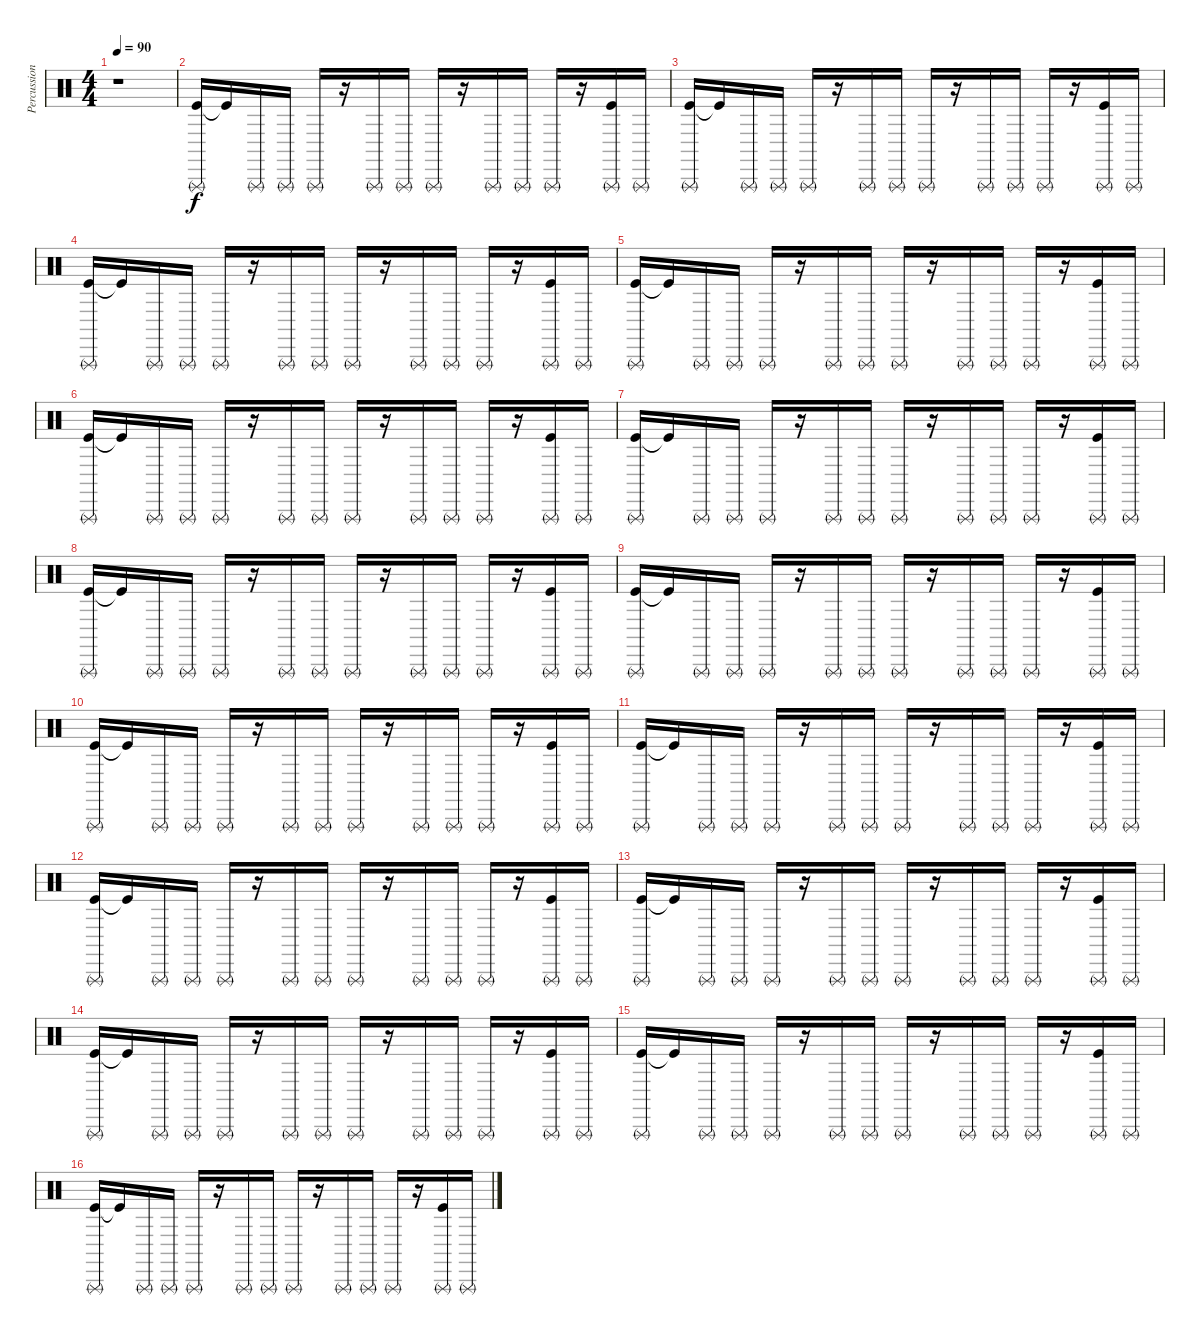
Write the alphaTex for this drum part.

\track ("Percussion" "Percussion") {instrument percussion}
\staff {score}
\articulation defaults
\ts (4 4)
\tempo 90
\clef neutral
\ks c
r.1{dy f} |
("Kick (hit)" "Triangle (rnute)").16 "Kick (hit)"{t}.16 "Triangle (rnute)".16 "Triangle (rnute)".16 "Triangle (rnute)".16 r.16 "Triangle (rnute)".16 "Triangle (rnute)".16 "Triangle (rnute)".16 r.16 "Triangle (rnute)".16 "Triangle (rnute)".16 "Triangle (rnute)".16 r.16 ("Kick (hit)" "Triangle (rnute)").16 "Triangle (rnute)".16 |
("Kick (hit)" "Triangle (rnute)").16 "Kick (hit)"{t}.16 "Triangle (rnute)".16 "Triangle (rnute)".16 "Triangle (rnute)".16 r.16 "Triangle (rnute)".16 "Triangle (rnute)".16 "Triangle (rnute)".16 r.16 "Triangle (rnute)".16 "Triangle (rnute)".16 "Triangle (rnute)".16 r.16 ("Kick (hit)" "Triangle (rnute)").16 "Triangle (rnute)".16 |
("Kick (hit)" "Triangle (rnute)").16 "Kick (hit)"{t}.16 "Triangle (rnute)".16 "Triangle (rnute)".16 "Triangle (rnute)".16 r.16 "Triangle (rnute)".16 "Triangle (rnute)".16 "Triangle (rnute)".16 r.16 "Triangle (rnute)".16 "Triangle (rnute)".16 "Triangle (rnute)".16 r.16 ("Kick (hit)" "Triangle (rnute)").16 "Triangle (rnute)".16 |
("Kick (hit)" "Triangle (rnute)").16 "Kick (hit)"{t}.16 "Triangle (rnute)".16 "Triangle (rnute)".16 "Triangle (rnute)".16 r.16 "Triangle (rnute)".16 "Triangle (rnute)".16 "Triangle (rnute)".16 r.16 "Triangle (rnute)".16 "Triangle (rnute)".16 "Triangle (rnute)".16 r.16 ("Kick (hit)" "Triangle (rnute)").16 "Triangle (rnute)".16 |
("Kick (hit)" "Triangle (rnute)").16 "Kick (hit)"{t}.16 "Triangle (rnute)".16 "Triangle (rnute)".16 "Triangle (rnute)".16 r.16 "Triangle (rnute)".16 "Triangle (rnute)".16 "Triangle (rnute)".16 r.16 "Triangle (rnute)".16 "Triangle (rnute)".16 "Triangle (rnute)".16 r.16 ("Kick (hit)" "Triangle (rnute)").16 "Triangle (rnute)".16 |
("Kick (hit)" "Triangle (rnute)").16 "Kick (hit)"{t}.16 "Triangle (rnute)".16 "Triangle (rnute)".16 "Triangle (rnute)".16 r.16 "Triangle (rnute)".16 "Triangle (rnute)".16 "Triangle (rnute)".16 r.16 "Triangle (rnute)".16 "Triangle (rnute)".16 "Triangle (rnute)".16 r.16 ("Kick (hit)" "Triangle (rnute)").16 "Triangle (rnute)".16 |
("Kick (hit)" "Triangle (rnute)").16 "Kick (hit)"{t}.16 "Triangle (rnute)".16 "Triangle (rnute)".16 "Triangle (rnute)".16 r.16 "Triangle (rnute)".16 "Triangle (rnute)".16 "Triangle (rnute)".16 r.16 "Triangle (rnute)".16 "Triangle (rnute)".16 "Triangle (rnute)".16 r.16 ("Kick (hit)" "Triangle (rnute)").16 "Triangle (rnute)".16 |
("Kick (hit)" "Triangle (rnute)").16 "Kick (hit)"{t}.16 "Triangle (rnute)".16 "Triangle (rnute)".16 "Triangle (rnute)".16 r.16 "Triangle (rnute)".16 "Triangle (rnute)".16 "Triangle (rnute)".16 r.16 "Triangle (rnute)".16 "Triangle (rnute)".16 "Triangle (rnute)".16 r.16 ("Kick (hit)" "Triangle (rnute)").16 "Triangle (rnute)".16 |
("Kick (hit)" "Triangle (rnute)").16 "Kick (hit)"{t}.16 "Triangle (rnute)".16 "Triangle (rnute)".16 "Triangle (rnute)".16 r.16 "Triangle (rnute)".16 "Triangle (rnute)".16 "Triangle (rnute)".16 r.16 "Triangle (rnute)".16 "Triangle (rnute)".16 "Triangle (rnute)".16 r.16 ("Kick (hit)" "Triangle (rnute)").16 "Triangle (rnute)".16 |
("Kick (hit)" "Triangle (rnute)").16 "Kick (hit)"{t}.16 "Triangle (rnute)".16 "Triangle (rnute)".16 "Triangle (rnute)".16 r.16 "Triangle (rnute)".16 "Triangle (rnute)".16 "Triangle (rnute)".16 r.16 "Triangle (rnute)".16 "Triangle (rnute)".16 "Triangle (rnute)".16 r.16 ("Kick (hit)" "Triangle (rnute)").16 "Triangle (rnute)".16 |
("Kick (hit)" "Triangle (rnute)").16 "Kick (hit)"{t}.16 "Triangle (rnute)".16 "Triangle (rnute)".16 "Triangle (rnute)".16 r.16 "Triangle (rnute)".16 "Triangle (rnute)".16 "Triangle (rnute)".16 r.16 "Triangle (rnute)".16 "Triangle (rnute)".16 "Triangle (rnute)".16 r.16 ("Kick (hit)" "Triangle (rnute)").16 "Triangle (rnute)".16 |
("Kick (hit)" "Triangle (rnute)").16 "Kick (hit)"{t}.16 "Triangle (rnute)".16 "Triangle (rnute)".16 "Triangle (rnute)".16 r.16 "Triangle (rnute)".16 "Triangle (rnute)".16 "Triangle (rnute)".16 r.16 "Triangle (rnute)".16 "Triangle (rnute)".16 "Triangle (rnute)".16 r.16 ("Kick (hit)" "Triangle (rnute)").16 "Triangle (rnute)".16 |
("Kick (hit)" "Triangle (rnute)").16 "Kick (hit)"{t}.16 "Triangle (rnute)".16 "Triangle (rnute)".16 "Triangle (rnute)".16 r.16 "Triangle (rnute)".16 "Triangle (rnute)".16 "Triangle (rnute)".16 r.16 "Triangle (rnute)".16 "Triangle (rnute)".16 "Triangle (rnute)".16 r.16 ("Kick (hit)" "Triangle (rnute)").16 "Triangle (rnute)".16 |
("Kick (hit)" "Triangle (rnute)").16 "Kick (hit)"{t}.16 "Triangle (rnute)".16 "Triangle (rnute)".16 "Triangle (rnute)".16 r.16 "Triangle (rnute)".16 "Triangle (rnute)".16 "Triangle (rnute)".16 r.16 "Triangle (rnute)".16 "Triangle (rnute)".16 "Triangle (rnute)".16 r.16 ("Kick (hit)" "Triangle (rnute)").16 "Triangle (rnute)".16 |
("Kick (hit)" "Triangle (rnute)").16 "Kick (hit)"{t}.16 "Triangle (rnute)".16 "Triangle (rnute)".16 "Triangle (rnute)".16 r.16 "Triangle (rnute)".16 "Triangle (rnute)".16 "Triangle (rnute)".16 r.16 "Triangle (rnute)".16 "Triangle (rnute)".16 "Triangle (rnute)".16 r.16 ("Kick (hit)" "Triangle (rnute)").16 "Triangle (rnute)".16
